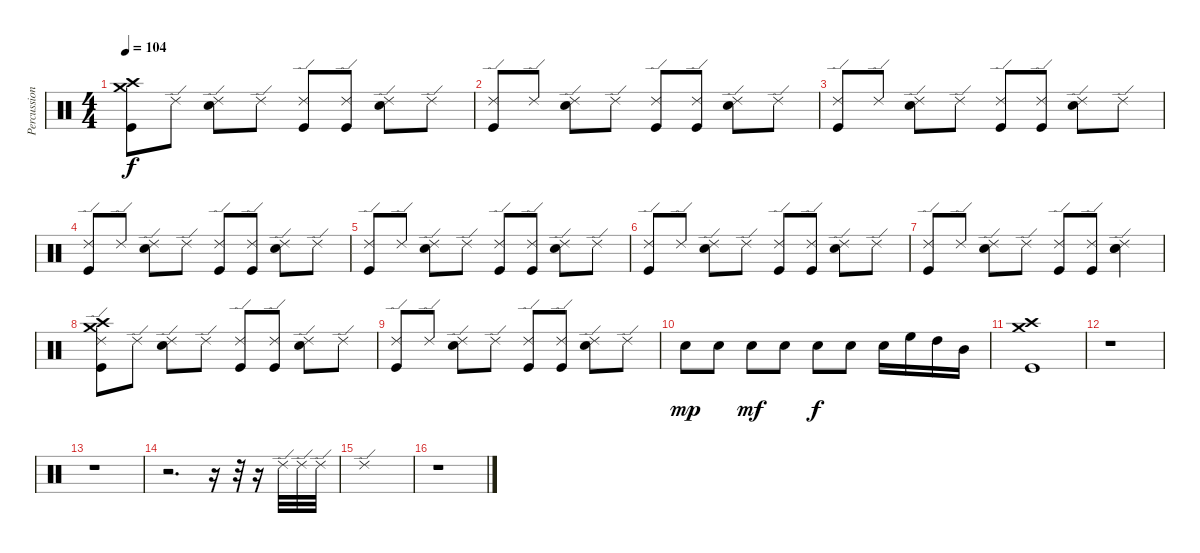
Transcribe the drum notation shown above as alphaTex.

\track ("Percussion" "Percussion") {instrument percussion}
\staff {score}
\articulation defaults
\ts (4 4)
\tempo 104
\clef neutral
\ks c
("Crash high (hit)" "Crash medium (hit)" "Kick (hit)").8{dy f} "Ride (edge) 2".8 ("Ride (edge) 2" "Snare (hit) 2").8 "Ride (edge) 2".8 ("Ride (edge) 2" "Kick (hit)").8 ("Ride (edge) 2" "Kick (hit)").8 ("Ride (edge) 2" "Snare (hit) 2").8 "Ride (edge) 2".8 |
("Ride (edge) 2" "Kick (hit)").8 "Ride (edge) 2".8 ("Ride (edge) 2" "Snare (hit) 2").8 "Ride (edge) 2".8 ("Ride (edge) 2" "Kick (hit)").8 ("Ride (edge) 2" "Kick (hit)").8 ("Ride (edge) 2" "Snare (hit) 2").8 "Ride (edge) 2".8 |
("Ride (edge) 2" "Kick (hit)").8 "Ride (edge) 2".8 ("Ride (edge) 2" "Snare (hit) 2").8 "Ride (edge) 2".8 ("Ride (edge) 2" "Kick (hit)").8 ("Ride (edge) 2" "Kick (hit)").8 ("Ride (edge) 2" "Snare (hit) 2").8 "Ride (edge) 2".8 |
("Ride (edge) 2" "Kick (hit)").8 "Ride (edge) 2".8 ("Ride (edge) 2" "Snare (hit) 2").8 "Ride (edge) 2".8 ("Ride (edge) 2" "Kick (hit)").8 ("Ride (edge) 2" "Kick (hit)").8 ("Ride (edge) 2" "Snare (hit) 2").8 "Ride (edge) 2".8 |
("Ride (edge) 2" "Kick (hit)").8 "Ride (edge) 2".8 ("Ride (edge) 2" "Snare (hit) 2").8 "Ride (edge) 2".8 ("Ride (edge) 2" "Kick (hit)").8 ("Ride (edge) 2" "Kick (hit)").8 ("Ride (edge) 2" "Snare (hit) 2").8 "Ride (edge) 2".8 |
("Ride (edge) 2" "Kick (hit)").8 "Ride (edge) 2".8 ("Ride (edge) 2" "Snare (hit) 2").8 "Ride (edge) 2".8 ("Ride (edge) 2" "Kick (hit)").8 ("Ride (edge) 2" "Kick (hit)").8 ("Ride (edge) 2" "Snare (hit) 2").8 "Ride (edge) 2".8 |
("Ride (edge) 2" "Kick (hit)").8 "Ride (edge) 2".8 ("Ride (edge) 2" "Snare (hit) 2").8 "Ride (edge) 2".8 ("Ride (edge) 2" "Kick (hit)").8 ("Ride (edge) 2" "Kick (hit)").8 ("Ride (edge) 2" "Snare (hit) 2" "Electric Snare (hit)").4 |
("Ride (edge) 2" "Crash medium (hit)" "Kick (hit)" "Crash high (hit)").8 "Ride (edge) 2".8 ("Ride (edge) 2" "Snare (hit) 2").8 "Ride (edge) 2".8 ("Ride (edge) 2" "Kick (hit)").8 ("Ride (edge) 2" "Kick (hit)").8 ("Ride (edge) 2" "Snare (hit) 2").8 "Ride (edge) 2".8 |
("Ride (edge) 2" "Kick (hit)").8 "Ride (edge) 2".8 ("Ride (edge) 2" "Snare (hit) 2").8 "Ride (edge) 2".8 ("Ride (edge) 2" "Kick (hit)").8 ("Ride (edge) 2" "Kick (hit)").8 ("Ride (edge) 2" "Snare (hit) 2").8 "Ride (edge) 2".8 |
"Snare (hit) 2".8{dy mp} "Snare (hit) 2".8 "Snare (hit) 2".8{dy mf} "Snare (hit) 2".8 "Snare (hit) 2".8{dy f} "Snare (hit) 2".8 "Snare (hit) 2".16 "High Floor Tom (hit)".16 "High Tom (hit)".16 "Mid Tom (hit)".16 |
("Kick (hit)" "Crash high (hit)" "Crash medium (hit)").1 |
r.1 |
r.1 |
r.2{d} r.16 r.32 r.16 "Ride (edge) 2".32 "Ride (edge) 2".32 "Ride (edge) 2".32 |
"Ride (edge) 2".1 |
r.1
